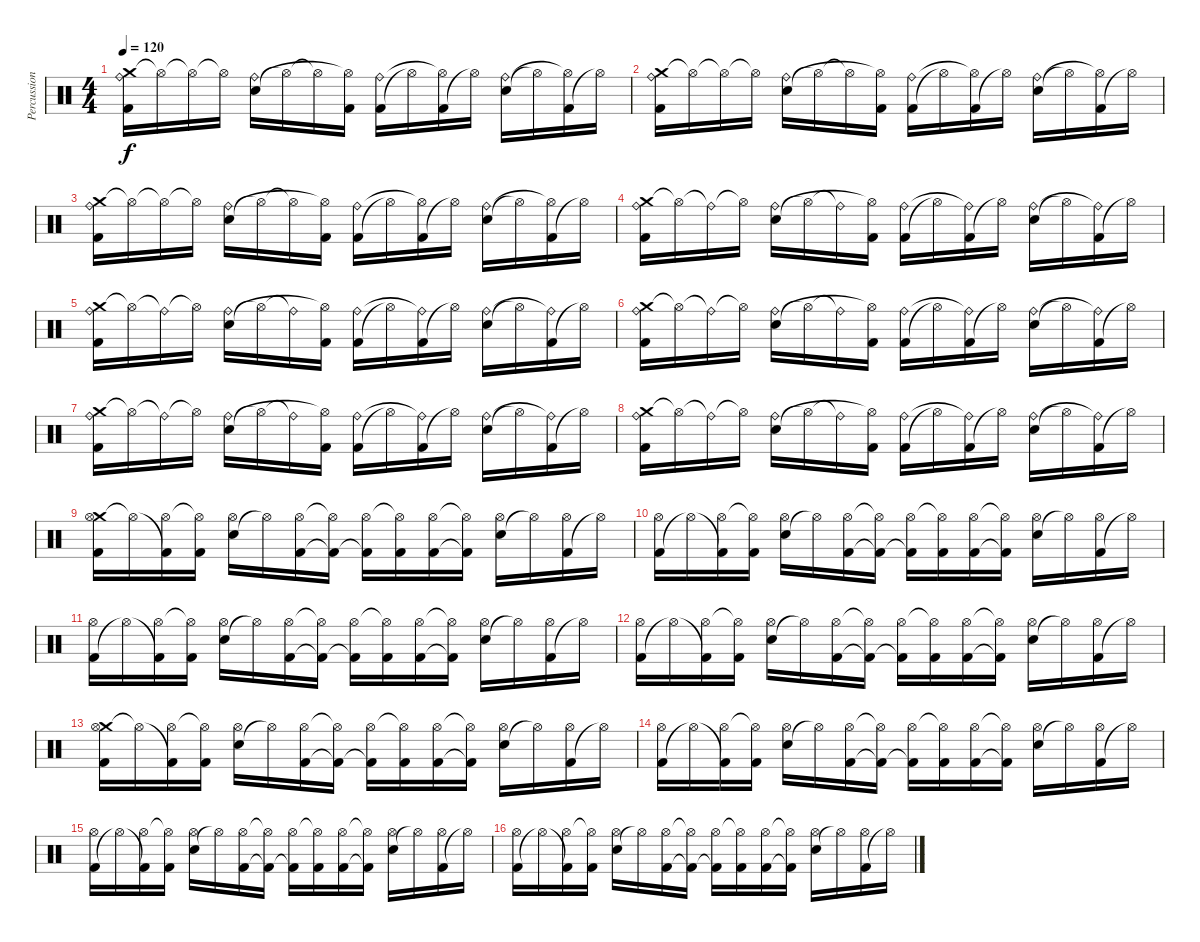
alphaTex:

\track ("Percussions" "Percussion") {instrument percussion}
\staff {score}
\articulation defaults
\ts (4 4)
\tempo 120
\clef neutral
\ks c
("Crash medium (hit)" "Kick (hit) 2" "Ride (bell)").16{dy f} "Hi-Hat (open)"{t}.16 "Hi-Hat (open)"{t}.16 "Hi-Hat (open)"{t}.16 ("Electric Snare (hit)" "Ride (bell)").16 "Hi-Hat (open)"{t}.16 "Hi-Hat (open)"{t}.16 ("Kick (hit) 2" "Hi-Hat (open)"{t}).16 ("Kick (hit) 2" "Ride (bell)").16 "Hi-Hat (open)"{t}.16 ("Kick (hit) 2" "Hi-Hat (open)"{t}).16 "Hi-Hat (open)"{t}.16 ("Electric Snare (hit)" "Ride (bell)").16 "Hi-Hat (open)"{t}.16 ("Kick (hit) 2" "Hi-Hat (open)"{t}).16 "Hi-Hat (open)"{t}.16 |
("Crash medium (hit)" "Kick (hit) 2" "Ride (bell)").16 "Hi-Hat (open)"{t}.16 "Hi-Hat (open)"{t}.16 "Hi-Hat (open)"{t}.16 ("Electric Snare (hit)" "Ride (bell)").16 "Hi-Hat (open)"{t}.16 "Hi-Hat (open)"{t}.16 ("Kick (hit) 2" "Hi-Hat (open)"{t}).16 ("Kick (hit) 2" "Ride (bell)").16 "Hi-Hat (open)"{t}.16 ("Kick (hit) 2" "Hi-Hat (open)"{t}).16 "Hi-Hat (open)"{t}.16 ("Electric Snare (hit)" "Ride (bell)").16 "Hi-Hat (open)"{t}.16 ("Kick (hit) 2" "Hi-Hat (open)"{t}).16 "Hi-Hat (open)"{t}.16 |
("Crash medium (hit)" "Kick (hit) 2" "Ride (bell)").16 "Hi-Hat (open)"{t}.16 "Hi-Hat (open)"{t}.16 "Hi-Hat (open)"{t}.16 ("Electric Snare (hit)" "Ride (bell)").16 "Hi-Hat (open)"{t}.16 "Hi-Hat (open)"{t}.16 ("Kick (hit) 2" "Hi-Hat (open)"{t}).16 ("Kick (hit) 2" "Ride (bell)").16 "Hi-Hat (open)"{t}.16 ("Kick (hit) 2" "Hi-Hat (open)"{t}).16 "Hi-Hat (open)"{t}.16 ("Electric Snare (hit)" "Ride (bell)").16 "Hi-Hat (open)"{t}.16 ("Kick (hit) 2" "Hi-Hat (open)"{t}).16 "Hi-Hat (open)"{t}.16 |
("Crash medium (hit)" "Kick (hit) 2" "Ride (bell)").16 "Hi-Hat (open)"{t}.16 "Ride (bell)"{t}.16 "Hi-Hat (open)"{t}.16 ("Electric Snare (hit)" "Ride (bell)").16 "Hi-Hat (open)"{t}.16 "Ride (bell)"{t}.16 ("Kick (hit) 2" "Hi-Hat (open)"{t}).16 ("Kick (hit) 2" "Ride (bell)").16 "Hi-Hat (open)"{t}.16 ("Kick (hit) 2" "Ride (bell)"{t}).16 "Hi-Hat (open)"{t}.16 ("Electric Snare (hit)" "Ride (bell)").16 "Hi-Hat (open)"{t}.16 ("Kick (hit) 2" "Ride (bell)"{t}).16 "Hi-Hat (open)"{t}.16 |
("Crash medium (hit)" "Kick (hit) 2" "Ride (bell)").16 "Hi-Hat (open)"{t}.16 "Ride (bell)"{t}.16 "Hi-Hat (open)"{t}.16 ("Electric Snare (hit)" "Ride (bell)").16 "Hi-Hat (open)"{t}.16 "Ride (bell)"{t}.16 ("Kick (hit) 2" "Hi-Hat (open)"{t}).16 ("Kick (hit) 2" "Ride (bell)").16 "Hi-Hat (open)"{t}.16 ("Kick (hit) 2" "Ride (bell)"{t}).16 "Hi-Hat (open)"{t}.16 ("Electric Snare (hit)" "Ride (bell)").16 "Hi-Hat (open)"{t}.16 ("Kick (hit) 2" "Ride (bell)"{t}).16 "Hi-Hat (open)"{t}.16 |
("Crash medium (hit)" "Kick (hit) 2" "Ride (bell)").16 "Hi-Hat (open)"{t}.16 "Ride (bell)"{t}.16 "Hi-Hat (open)"{t}.16 ("Electric Snare (hit)" "Ride (bell)").16 "Hi-Hat (open)"{t}.16 "Ride (bell)"{t}.16 ("Kick (hit) 2" "Hi-Hat (open)"{t}).16 ("Kick (hit) 2" "Ride (bell)").16 "Hi-Hat (open)"{t}.16 ("Kick (hit) 2" "Ride (bell)"{t}).16 "Hi-Hat (open)"{t}.16 ("Electric Snare (hit)" "Ride (bell)").16 "Hi-Hat (open)"{t}.16 ("Kick (hit) 2" "Ride (bell)"{t}).16 "Hi-Hat (open)"{t}.16 |
("Crash medium (hit)" "Kick (hit) 2" "Ride (bell)").16 "Hi-Hat (open)"{t}.16 "Ride (bell)"{t}.16 "Hi-Hat (open)"{t}.16 ("Electric Snare (hit)" "Ride (bell)").16 "Hi-Hat (open)"{t}.16 "Ride (bell)"{t}.16 ("Kick (hit) 2" "Hi-Hat (open)"{t}).16 ("Kick (hit) 2" "Ride (bell)").16 "Hi-Hat (open)"{t}.16 ("Kick (hit) 2" "Ride (bell)"{t}).16 "Hi-Hat (open)"{t}.16 ("Electric Snare (hit)" "Ride (bell)").16 "Hi-Hat (open)"{t}.16 ("Kick (hit) 2" "Ride (bell)"{t}).16 "Hi-Hat (open)"{t}.16 |
("Crash medium (hit)" "Kick (hit) 2" "Ride (bell)").16 "Hi-Hat (open)"{t}.16 "Ride (bell)"{t}.16 "Hi-Hat (open)"{t}.16 ("Electric Snare (hit)" "Ride (bell)").16 "Hi-Hat (open)"{t}.16 "Ride (bell)"{t}.16 ("Kick (hit) 2" "Hi-Hat (open)"{t}).16 ("Kick (hit) 2" "Ride (bell)").16 "Hi-Hat (open)"{t}.16 ("Kick (hit) 2" "Ride (bell)"{t}).16 "Hi-Hat (open)"{t}.16 ("Electric Snare (hit)" "Ride (bell)").16 "Hi-Hat (open)"{t}.16 ("Kick (hit) 2" "Ride (bell)"{t}).16 "Hi-Hat (open)"{t}.16 |
("Crash medium (hit)" "Kick (hit) 2" "Hi-Hat (open)").16 "Hi-Hat (open)"{t}.16 ("Kick (hit) 2"{t} "Hi-Hat (open)").16 ("Kick (hit) 2" "Hi-Hat (open)"{t}).16 ("Electric Snare (hit)" "Hi-Hat (open)").16 "Hi-Hat (open)"{t}.16 ("Kick (hit) 2" "Hi-Hat (open)").16 ("Kick (hit) 2"{t} "Hi-Hat (open)"{t}).16 ("Kick (hit) 2"{t} "Hi-Hat (open)").16 ("Kick (hit) 2" "Hi-Hat (open)"{t}).16 ("Kick (hit) 2" "Hi-Hat (open)").16 ("Kick (hit) 2"{t} "Hi-Hat (open)"{t}).16 ("Electric Snare (hit)" "Hi-Hat (open)").16 "Hi-Hat (open)"{t}.16 ("Kick (hit) 2" "Hi-Hat (open)").16 "Hi-Hat (open)"{t}.16 |
("Kick (hit) 2" "Hi-Hat (open)").16 "Hi-Hat (open)"{t}.16 ("Kick (hit) 2"{t} "Hi-Hat (open)").16 ("Kick (hit) 2" "Hi-Hat (open)"{t}).16 ("Electric Snare (hit)" "Hi-Hat (open)").16 "Hi-Hat (open)"{t}.16 ("Kick (hit) 2" "Hi-Hat (open)").16 ("Kick (hit) 2"{t} "Hi-Hat (open)"{t}).16 ("Kick (hit) 2"{t} "Hi-Hat (open)").16 ("Kick (hit) 2" "Hi-Hat (open)"{t}).16 ("Kick (hit) 2" "Hi-Hat (open)").16 ("Kick (hit) 2"{t} "Hi-Hat (open)"{t}).16 ("Electric Snare (hit)" "Hi-Hat (open)").16 "Hi-Hat (open)"{t}.16 ("Kick (hit) 2" "Hi-Hat (open)").16 "Hi-Hat (open)"{t}.16 |
("Kick (hit) 2" "Hi-Hat (open)").16 "Hi-Hat (open)"{t}.16 ("Kick (hit) 2"{t} "Hi-Hat (open)").16 ("Kick (hit) 2" "Hi-Hat (open)"{t}).16 ("Electric Snare (hit)" "Hi-Hat (open)").16 "Hi-Hat (open)"{t}.16 ("Kick (hit) 2" "Hi-Hat (open)").16 ("Kick (hit) 2"{t} "Hi-Hat (open)"{t}).16 ("Kick (hit) 2"{t} "Hi-Hat (open)").16 ("Kick (hit) 2" "Hi-Hat (open)"{t}).16 ("Kick (hit) 2" "Hi-Hat (open)").16 ("Kick (hit) 2"{t} "Hi-Hat (open)"{t}).16 ("Electric Snare (hit)" "Hi-Hat (open)").16 "Hi-Hat (open)"{t}.16 ("Kick (hit) 2" "Hi-Hat (open)").16 "Hi-Hat (open)"{t}.16 |
("Kick (hit) 2" "Hi-Hat (open)").16 "Hi-Hat (open)"{t}.16 ("Kick (hit) 2"{t} "Hi-Hat (open)").16 ("Kick (hit) 2" "Hi-Hat (open)"{t}).16 ("Electric Snare (hit)" "Hi-Hat (open)").16 "Hi-Hat (open)"{t}.16 ("Kick (hit) 2" "Hi-Hat (open)").16 ("Kick (hit) 2"{t} "Hi-Hat (open)"{t}).16 ("Kick (hit) 2"{t} "Hi-Hat (open)").16 ("Kick (hit) 2" "Hi-Hat (open)"{t}).16 ("Kick (hit) 2" "Hi-Hat (open)").16 ("Kick (hit) 2"{t} "Hi-Hat (open)"{t}).16 ("Electric Snare (hit)" "Hi-Hat (open)").16 "Hi-Hat (open)"{t}.16 ("Kick (hit) 2" "Hi-Hat (open)").16 "Hi-Hat (open)"{t}.16 |
("Crash medium (hit)" "Kick (hit) 2" "Hi-Hat (open)").16 "Hi-Hat (open)"{t}.16 ("Kick (hit) 2"{t} "Hi-Hat (open)").16 ("Kick (hit) 2" "Hi-Hat (open)"{t}).16 ("Electric Snare (hit)" "Hi-Hat (open)").16 "Hi-Hat (open)"{t}.16 ("Kick (hit) 2" "Hi-Hat (open)").16 ("Kick (hit) 2"{t} "Hi-Hat (open)"{t}).16 ("Kick (hit) 2"{t} "Hi-Hat (open)").16 ("Kick (hit) 2" "Hi-Hat (open)"{t}).16 ("Kick (hit) 2" "Hi-Hat (open)").16 ("Kick (hit) 2"{t} "Hi-Hat (open)"{t}).16 ("Electric Snare (hit)" "Hi-Hat (open)").16 "Hi-Hat (open)"{t}.16 ("Kick (hit) 2" "Hi-Hat (open)").16 "Hi-Hat (open)"{t}.16 |
("Kick (hit) 2" "Hi-Hat (open)").16 "Hi-Hat (open)"{t}.16 ("Kick (hit) 2"{t} "Hi-Hat (open)").16 ("Kick (hit) 2" "Hi-Hat (open)"{t}).16 ("Electric Snare (hit)" "Hi-Hat (open)").16 "Hi-Hat (open)"{t}.16 ("Kick (hit) 2" "Hi-Hat (open)").16 ("Kick (hit) 2"{t} "Hi-Hat (open)"{t}).16 ("Kick (hit) 2"{t} "Hi-Hat (open)").16 ("Kick (hit) 2" "Hi-Hat (open)"{t}).16 ("Kick (hit) 2" "Hi-Hat (open)").16 ("Kick (hit) 2"{t} "Hi-Hat (open)"{t}).16 ("Electric Snare (hit)" "Hi-Hat (open)").16 "Hi-Hat (open)"{t}.16 ("Kick (hit) 2" "Hi-Hat (open)").16 "Hi-Hat (open)"{t}.16 |
("Kick (hit) 2" "Hi-Hat (open)").16 "Hi-Hat (open)"{t}.16 ("Kick (hit) 2"{t} "Hi-Hat (open)").16 ("Kick (hit) 2" "Hi-Hat (open)"{t}).16 ("Electric Snare (hit)" "Hi-Hat (open)").16 "Hi-Hat (open)"{t}.16 ("Kick (hit) 2" "Hi-Hat (open)").16 ("Kick (hit) 2"{t} "Hi-Hat (open)"{t}).16 ("Kick (hit) 2"{t} "Hi-Hat (open)").16 ("Kick (hit) 2" "Hi-Hat (open)"{t}).16 ("Kick (hit) 2" "Hi-Hat (open)").16 ("Kick (hit) 2"{t} "Hi-Hat (open)"{t}).16 ("Electric Snare (hit)" "Hi-Hat (open)").16 "Hi-Hat (open)"{t}.16 ("Kick (hit) 2" "Hi-Hat (open)").16 "Hi-Hat (open)"{t}.16 |
("Kick (hit) 2" "Hi-Hat (open)").16 "Hi-Hat (open)"{t}.16 ("Kick (hit) 2"{t} "Hi-Hat (open)").16 ("Kick (hit) 2" "Hi-Hat (open)"{t}).16 ("Electric Snare (hit)" "Hi-Hat (open)").16 "Hi-Hat (open)"{t}.16 ("Kick (hit) 2" "Hi-Hat (open)").16 ("Kick (hit) 2"{t} "Hi-Hat (open)"{t}).16 ("Kick (hit) 2"{t} "Hi-Hat (open)").16 ("Kick (hit) 2" "Hi-Hat (open)"{t}).16 ("Kick (hit) 2" "Hi-Hat (open)").16 ("Kick (hit) 2"{t} "Hi-Hat (open)"{t}).16 ("Electric Snare (hit)" "Hi-Hat (open)").16 "Hi-Hat (open)"{t}.16 ("Kick (hit) 2" "Hi-Hat (open)").16 "Hi-Hat (open)"{t}.16
